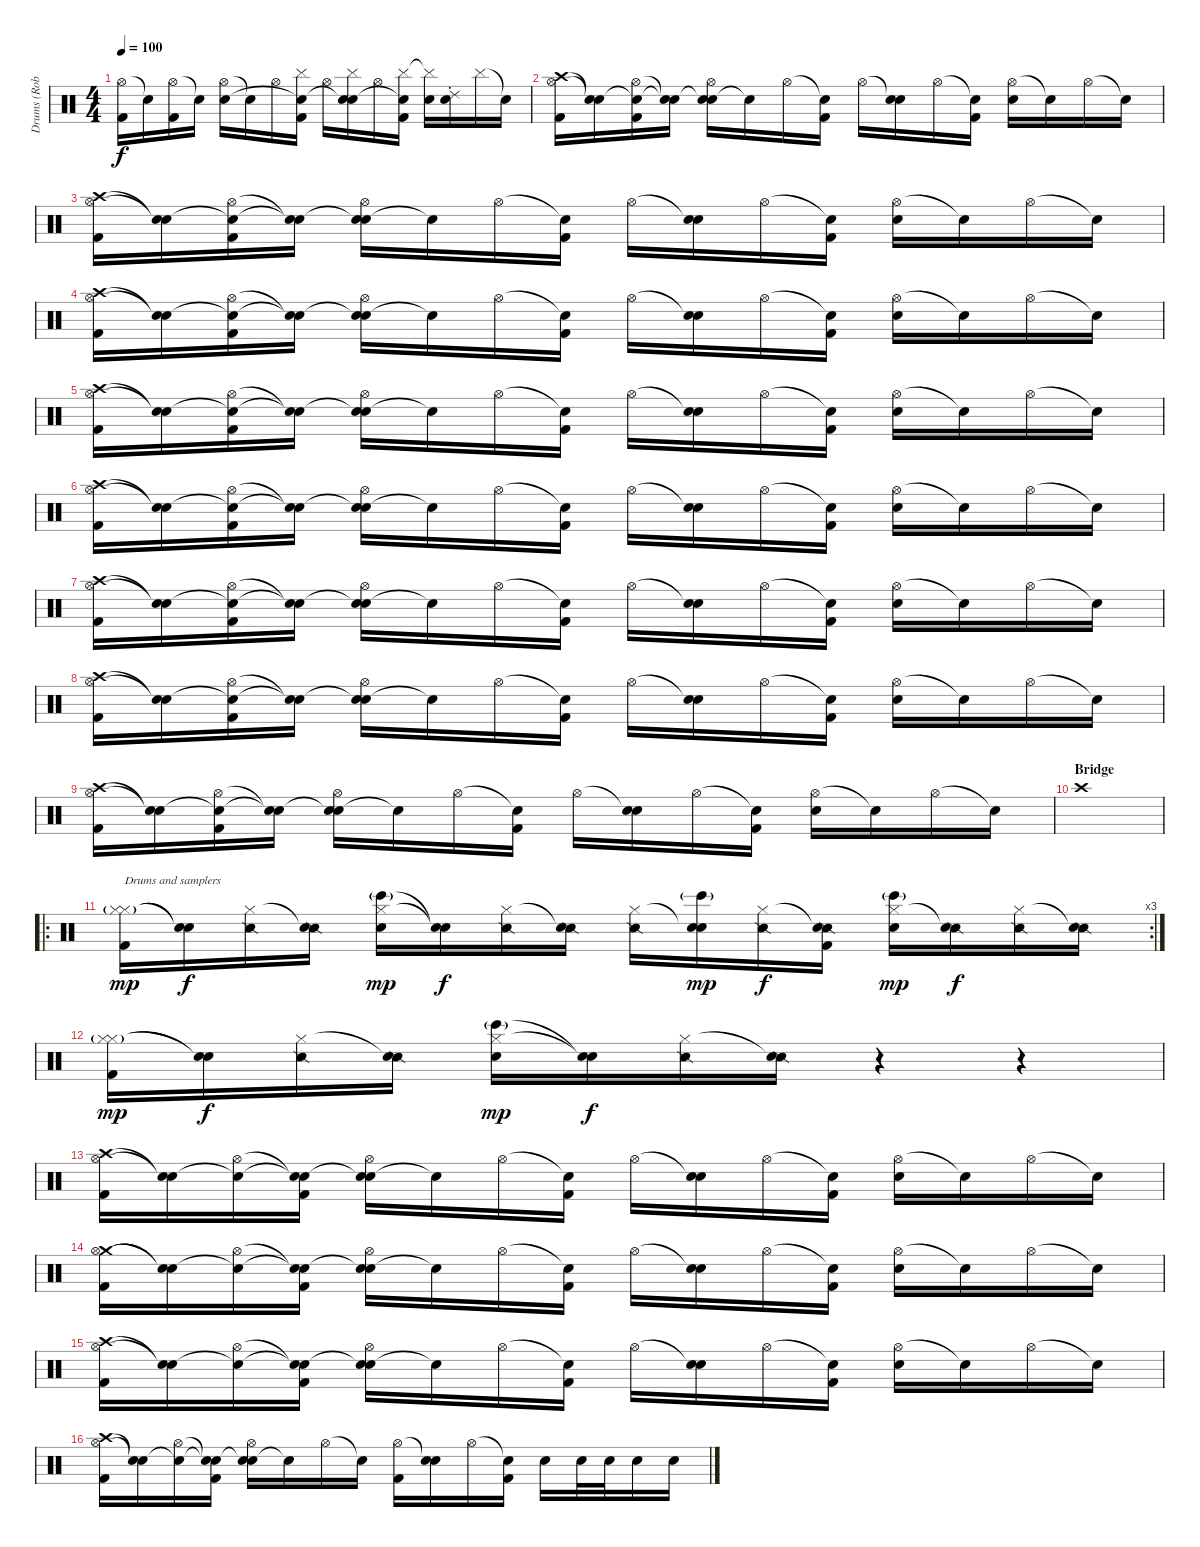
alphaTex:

\track ("Drums (Rob Bourdon)" "Drums (Rob") {instrument percussion}
\staff {score}
\articulation defaults
\ts (4 4)
\tempo 100
\clef neutral
\ks c
("Hi-Hat (open)" "Kick (hit) 2").16{dy f volume 14} "Snare (hit)"{t}.16 ("Hi-Hat (open)" "Kick (hit) 2").16 "Snare (hit)"{t}.16 ("Hi-Hat (open)" "Electric Snare (hit)").16 "Snare (hit)"{t}.16 "Hi-Hat (open)".16 ("Cymbal (hit)" "Snare (hit)"{t} "Kick (hit) 2").16 "Hi-Hat (open)".16 ("Cymbal (hit)" "Snare (hit)"{t} "Electric Snare (hit)").16 "Hi-Hat (open)".16 ("Cymbal (hit)" "Snare (hit)"{t} "Kick (hit) 2").16 ("Cymbal (hit)"{t} "Electric Snare (hit)").16 ("Ride (choke) 2" "Electric Snare (hit)").16 "Cymbal (hit)".16 "Snare (hit)"{t}.16 |
("Crash high (hit)" "Hi-Hat (open)" "Kick (hit) 2").16 ("Snare (hit)"{t} "Snare (hit)"{t}).16 ("Snare (hit)"{t} "Hi-Hat (open)" "Kick (hit) 2").16 ("Snare (hit)"{t} "Snare (hit)"{t}).16 ("Snare (hit)"{t} "Hi-Hat (open)" "Electric Snare (hit)").16 "Snare (hit)"{t}.16 "Hi-Hat (open)".16 ("Snare (hit)"{t} "Kick (hit) 2").16 "Hi-Hat (open)".16 ("Snare (hit)"{t} "Electric Snare (hit)").16 "Hi-Hat (open)".16 ("Snare (hit)"{t} "Kick (hit) 2").16 ("Hi-Hat (open)" "Electric Snare (hit)").16 "Snare (hit)"{t}.16 "Hi-Hat (open)".16 "Snare (hit)"{t}.16 |
("Crash high (hit)" "Hi-Hat (open)" "Kick (hit) 2").16 ("Snare (hit)"{t} "Snare (hit)"{t}).16 ("Snare (hit)"{t} "Hi-Hat (open)" "Kick (hit) 2").16 ("Snare (hit)"{t} "Snare (hit)"{t}).16 ("Snare (hit)"{t} "Hi-Hat (open)" "Electric Snare (hit)").16 "Snare (hit)"{t}.16 "Hi-Hat (open)".16 ("Snare (hit)"{t} "Kick (hit) 2").16 "Hi-Hat (open)".16 ("Snare (hit)"{t} "Electric Snare (hit)").16 "Hi-Hat (open)".16 ("Snare (hit)"{t} "Kick (hit) 2").16 ("Hi-Hat (open)" "Electric Snare (hit)").16 "Snare (hit)"{t}.16 "Hi-Hat (open)".16 "Snare (hit)"{t}.16 |
("Crash high (hit)" "Hi-Hat (open)" "Kick (hit) 2").16 ("Snare (hit)"{t} "Snare (hit)"{t}).16 ("Snare (hit)"{t} "Hi-Hat (open)" "Kick (hit) 2").16 ("Snare (hit)"{t} "Snare (hit)"{t}).16 ("Snare (hit)"{t} "Hi-Hat (open)" "Electric Snare (hit)").16 "Snare (hit)"{t}.16 "Hi-Hat (open)".16 ("Snare (hit)"{t} "Kick (hit) 2").16 "Hi-Hat (open)".16 ("Snare (hit)"{t} "Electric Snare (hit)").16 "Hi-Hat (open)".16 ("Snare (hit)"{t} "Kick (hit) 2").16 ("Hi-Hat (open)" "Electric Snare (hit)").16 "Snare (hit)"{t}.16 "Hi-Hat (open)".16 "Snare (hit)"{t}.16 |
("Crash high (hit)" "Hi-Hat (open)" "Kick (hit) 2").16 ("Snare (hit)"{t} "Snare (hit)"{t}).16 ("Snare (hit)"{t} "Hi-Hat (open)" "Kick (hit) 2").16 ("Snare (hit)"{t} "Snare (hit)"{t}).16 ("Snare (hit)"{t} "Hi-Hat (open)" "Electric Snare (hit)").16 "Snare (hit)"{t}.16 "Hi-Hat (open)".16 ("Snare (hit)"{t} "Kick (hit) 2").16 "Hi-Hat (open)".16 ("Snare (hit)"{t} "Electric Snare (hit)").16 "Hi-Hat (open)".16 ("Snare (hit)"{t} "Kick (hit) 2").16 ("Hi-Hat (open)" "Electric Snare (hit)").16 "Snare (hit)"{t}.16 "Hi-Hat (open)".16 "Snare (hit)"{t}.16 |
("Crash high (hit)" "Hi-Hat (open)" "Kick (hit) 2").16 ("Snare (hit)"{t} "Snare (hit)"{t}).16 ("Snare (hit)"{t} "Hi-Hat (open)" "Kick (hit) 2").16 ("Snare (hit)"{t} "Snare (hit)"{t}).16 ("Snare (hit)"{t} "Hi-Hat (open)" "Electric Snare (hit)").16 "Snare (hit)"{t}.16 "Hi-Hat (open)".16 ("Snare (hit)"{t} "Kick (hit) 2").16 "Hi-Hat (open)".16 ("Snare (hit)"{t} "Electric Snare (hit)").16 "Hi-Hat (open)".16 ("Snare (hit)"{t} "Kick (hit) 2").16 ("Hi-Hat (open)" "Electric Snare (hit)").16 "Snare (hit)"{t}.16 "Hi-Hat (open)".16 "Snare (hit)"{t}.16 |
("Crash high (hit)" "Hi-Hat (open)" "Kick (hit) 2").16 ("Snare (hit)"{t} "Snare (hit)"{t}).16 ("Snare (hit)"{t} "Hi-Hat (open)" "Kick (hit) 2").16 ("Snare (hit)"{t} "Snare (hit)"{t}).16 ("Snare (hit)"{t} "Hi-Hat (open)" "Electric Snare (hit)").16 "Snare (hit)"{t}.16 "Hi-Hat (open)".16 ("Snare (hit)"{t} "Kick (hit) 2").16 "Hi-Hat (open)".16 ("Snare (hit)"{t} "Electric Snare (hit)").16 "Hi-Hat (open)".16 ("Snare (hit)"{t} "Kick (hit) 2").16 ("Hi-Hat (open)" "Electric Snare (hit)").16 "Snare (hit)"{t}.16 "Hi-Hat (open)".16 "Snare (hit)"{t}.16 |
("Crash high (hit)" "Hi-Hat (open)" "Kick (hit) 2").16 ("Snare (hit)"{t} "Snare (hit)"{t}).16 ("Snare (hit)"{t} "Hi-Hat (open)" "Kick (hit) 2").16 ("Snare (hit)"{t} "Snare (hit)"{t}).16 ("Snare (hit)"{t} "Hi-Hat (open)" "Electric Snare (hit)").16 "Snare (hit)"{t}.16 "Hi-Hat (open)".16 ("Snare (hit)"{t} "Kick (hit) 2").16 "Hi-Hat (open)".16 ("Snare (hit)"{t} "Electric Snare (hit)").16 "Hi-Hat (open)".16 ("Snare (hit)"{t} "Kick (hit) 2").16 ("Hi-Hat (open)" "Electric Snare (hit)").16 "Snare (hit)"{t}.16 "Hi-Hat (open)".16 "Snare (hit)"{t}.16 |
("Crash high (hit)" "Hi-Hat (open)" "Kick (hit) 2").16 ("Snare (hit)"{t} "Snare (hit)"{t}).16 ("Snare (hit)"{t} "Hi-Hat (open)" "Kick (hit) 2").16 ("Snare (hit)"{t} "Snare (hit)"{t}).16 ("Snare (hit)"{t} "Hi-Hat (open)" "Electric Snare (hit)").16 "Snare (hit)"{t}.16 "Hi-Hat (open)".16 ("Snare (hit)"{t} "Kick (hit) 2").16 "Hi-Hat (open)".16 ("Snare (hit)"{t} "Electric Snare (hit)").16 "Hi-Hat (open)".16 ("Snare (hit)"{t} "Kick (hit) 2").16 ("Hi-Hat (open)" "Electric Snare (hit)").16 "Snare (hit)"{t}.16 "Hi-Hat (open)".16 "Snare (hit)"{t}.16 |
\section ("" "Bridge")
"Crash high (hit)".1 |
\ro
\rc 3
("Hi-Hat (closed)"{g} "Hi-Hat (closed)" "Kick (hit) 2").16{txt "Drums and samplers" dy mp} ("Snare (hit)"{t} "Snare (hit)"{t}).16{dy f} ("Snare (side stick) 2" "Hi-Hat (closed)").16 ("Snare (side stick) 2" "Snare (hit)"{t}).16 ("Bongo High (hit)"{g} "Hi-Hat (closed)" "Electric Snare (hit)").16{dy mp} ("Snare (hit)"{t} "Snare (hit)"{t}).16{dy f} ("Snare (side stick) 2" "Hi-Hat (closed)").16 ("Snare (side stick) 2" "Snare (hit)"{t}).16 ("Snare (side stick) 2" "Hi-Hat (closed)").16 ("Bongo High (hit)"{g} "Snare (hit)"{t} "Electric Snare (hit)").16{dy mp} ("Snare (side stick) 2" "Hi-Hat (closed)").16{dy f} ("Snare (side stick) 2" "Snare (hit)"{t} "Kick (hit) 2").16 ("Bongo High (hit)"{g} "Hi-Hat (closed)" "Electric Snare (hit)").16{dy mp} ("Snare (side stick) 2" "Snare (hit)"{t}).16{dy f} ("Snare (side stick) 2" "Hi-Hat (closed)").16 ("Snare (side stick) 2" "Snare (hit)"{t}).16 |
("Hi-Hat (closed)"{g} "Hi-Hat (closed)" "Kick (hit) 2").16{dy mp} ("Snare (hit)"{t} "Snare (hit)"{t}).16{dy f} ("Snare (side stick) 2" "Hi-Hat (closed)").16 ("Snare (side stick) 2" "Snare (hit)"{t}).16 ("Bongo High (hit)"{g} "Hi-Hat (closed)" "Electric Snare (hit)").16{dy mp} ("Snare (hit)"{t} "Snare (hit)"{t}).16{dy f} ("Snare (side stick) 2" "Hi-Hat (closed)").16 ("Snare (side stick) 2" "Snare (hit)"{t}).16 r.4 r.4 |
("Crash high (hit)" "Hi-Hat (open)" "Kick (hit) 2").16 ("Snare (hit)"{t} "Snare (hit)"{t}).16 ("Snare (hit)"{t} "Hi-Hat (open)").16 ("Snare (hit)"{t} "Snare (hit)"{t} "Kick (hit) 2").16 ("Snare (hit)"{t} "Hi-Hat (open)" "Electric Snare (hit)").16 "Snare (hit)"{t}.16 "Hi-Hat (open)".16 ("Snare (hit)"{t} "Kick (hit) 2").16 "Hi-Hat (open)".16 ("Snare (hit)"{t} "Electric Snare (hit)").16 "Hi-Hat (open)".16 ("Snare (hit)"{t} "Kick (hit) 2").16 ("Hi-Hat (open)" "Electric Snare (hit)").16 "Snare (hit)"{t}.16 "Hi-Hat (open)".16 "Snare (hit)"{t}.16 |
("Crash medium (hit)" "Hi-Hat (open)" "Kick (hit) 2").16 ("Snare (hit)"{t} "Snare (hit)"{t}).16 ("Snare (hit)"{t} "Hi-Hat (open)").16 ("Snare (hit)"{t} "Snare (hit)"{t} "Kick (hit) 2").16 ("Snare (hit)"{t} "Hi-Hat (open)" "Electric Snare (hit)").16 "Snare (hit)"{t}.16 "Hi-Hat (open)".16 ("Snare (hit)"{t} "Kick (hit) 2").16 "Hi-Hat (open)".16 ("Snare (hit)"{t} "Electric Snare (hit)").16 "Hi-Hat (open)".16 ("Snare (hit)"{t} "Kick (hit) 2").16 ("Hi-Hat (open)" "Electric Snare (hit)").16 "Snare (hit)"{t}.16 "Hi-Hat (open)".16 "Snare (hit)"{t}.16 |
("Crash high (hit)" "Hi-Hat (open)" "Kick (hit) 2").16 ("Snare (hit)"{t} "Snare (hit)"{t}).16 ("Snare (hit)"{t} "Hi-Hat (open)").16 ("Snare (hit)"{t} "Snare (hit)"{t} "Kick (hit) 2").16 ("Snare (hit)"{t} "Hi-Hat (open)" "Electric Snare (hit)").16 "Snare (hit)"{t}.16 "Hi-Hat (open)".16 ("Snare (hit)"{t} "Kick (hit) 2").16 "Hi-Hat (open)".16 ("Snare (hit)"{t} "Electric Snare (hit)").16 "Hi-Hat (open)".16 ("Snare (hit)"{t} "Kick (hit) 2").16 ("Hi-Hat (open)" "Electric Snare (hit)").16 "Snare (hit)"{t}.16 "Hi-Hat (open)".16 "Snare (hit)"{t}.16 |
("Crash high (hit)" "Hi-Hat (open)" "Kick (hit) 2").16 ("Snare (hit)"{t} "Snare (hit)"{t}).16 ("Snare (hit)"{t} "Hi-Hat (open)").16 ("Snare (hit)"{t} "Snare (hit)"{t} "Kick (hit) 2").16 ("Snare (hit)"{t} "Hi-Hat (open)" "Electric Snare (hit)").16 "Snare (hit)"{t}.16 "Hi-Hat (open)".16 "Snare (hit)"{t}.16 ("Hi-Hat (open)" "Kick (hit) 2").16 ("Snare (hit)"{t} "Electric Snare (hit)").16 "Hi-Hat (open)".16 ("Snare (hit)"{t} "Kick (hit) 2").16 "Electric Snare (hit)".16 "Electric Snare (hit)".32 "Electric Snare (hit)".32 "Electric Snare (hit)".16 "Electric Snare (hit)".16
